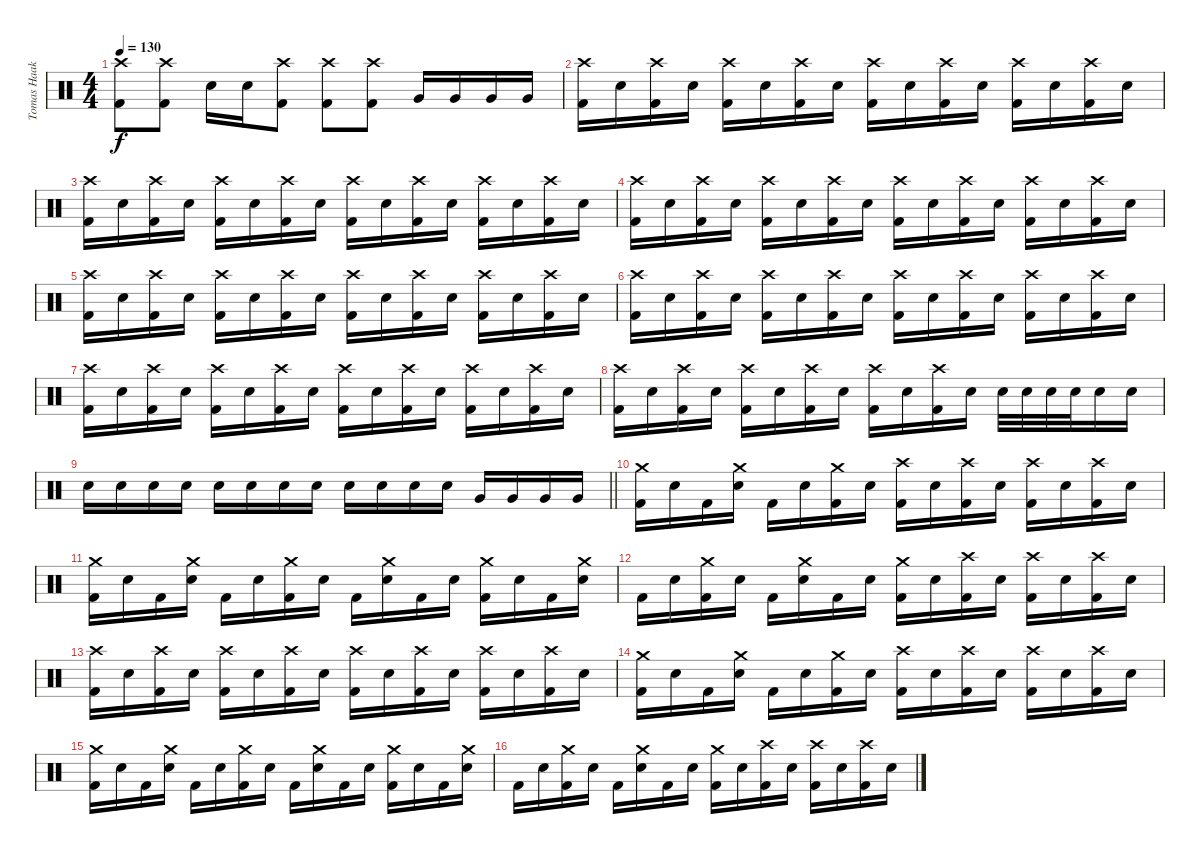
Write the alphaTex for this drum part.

\track ("Tomas Haake" "Tomas Haak") {instrument percussion}
\staff {score}
\articulation defaults
\ts (4 4)
\tempo 130
\clef neutral
\ks c
("Crash high (hit)" "Kick (hit) 2").8{dy f} ("Crash high (hit)" "Kick (hit) 2").8 "Electric Snare (hit)".16 "Electric Snare (hit)".16 ("Crash high (hit)" "Kick (hit) 2").8 ("Crash high (hit)" "Kick (hit) 2").8 ("Crash high (hit)" "Kick (hit) 2").8 "Very Low Tom (hit)".16 "Very Low Tom (hit)".16 "Very Low Tom (hit)".16 "Very Low Tom (hit)".16 |
("Crash high (hit)" "Kick (hit) 2").16 "Electric Snare (hit)".16 ("Crash high (hit)" "Kick (hit) 2").16 "Electric Snare (hit)".16 ("Crash high (hit)" "Kick (hit) 2").16 "Electric Snare (hit)".16 ("Crash high (hit)" "Kick (hit) 2").16 "Electric Snare (hit)".16 ("Crash high (hit)" "Kick (hit) 2").16 "Electric Snare (hit)".16 ("Crash high (hit)" "Kick (hit) 2").16 "Electric Snare (hit)".16 ("Crash high (hit)" "Kick (hit) 2").16 "Electric Snare (hit)".16 ("Crash high (hit)" "Kick (hit) 2").16 "Electric Snare (hit)".16 |
("Crash high (hit)" "Kick (hit) 2").16 "Electric Snare (hit)".16 ("Crash high (hit)" "Kick (hit) 2").16 "Electric Snare (hit)".16 ("Crash high (hit)" "Kick (hit) 2").16 "Electric Snare (hit)".16 ("Crash high (hit)" "Kick (hit) 2").16 "Electric Snare (hit)".16 ("Crash high (hit)" "Kick (hit) 2").16 "Electric Snare (hit)".16 ("Crash high (hit)" "Kick (hit) 2").16 "Electric Snare (hit)".16 ("Crash high (hit)" "Kick (hit) 2").16 "Electric Snare (hit)".16 ("Crash high (hit)" "Kick (hit) 2").16 "Electric Snare (hit)".16 |
("Crash high (hit)" "Kick (hit) 2").16 "Electric Snare (hit)".16 ("Crash high (hit)" "Kick (hit) 2").16 "Electric Snare (hit)".16 ("Crash high (hit)" "Kick (hit) 2").16 "Electric Snare (hit)".16 ("Crash high (hit)" "Kick (hit) 2").16 "Electric Snare (hit)".16 ("Crash high (hit)" "Kick (hit) 2").16 "Electric Snare (hit)".16 ("Crash high (hit)" "Kick (hit) 2").16 "Electric Snare (hit)".16 ("Crash high (hit)" "Kick (hit) 2").16 "Electric Snare (hit)".16 ("Crash high (hit)" "Kick (hit) 2").16 "Electric Snare (hit)".16 |
("Crash high (hit)" "Kick (hit) 2").16 "Electric Snare (hit)".16 ("Crash high (hit)" "Kick (hit) 2").16 "Electric Snare (hit)".16 ("Crash high (hit)" "Kick (hit) 2").16 "Electric Snare (hit)".16 ("Crash high (hit)" "Kick (hit) 2").16 "Electric Snare (hit)".16 ("Crash high (hit)" "Kick (hit) 2").16 "Electric Snare (hit)".16 ("Crash high (hit)" "Kick (hit) 2").16 "Electric Snare (hit)".16 ("Crash high (hit)" "Kick (hit) 2").16 "Electric Snare (hit)".16 ("Crash high (hit)" "Kick (hit) 2").16 "Electric Snare (hit)".16 |
("Crash high (hit)" "Kick (hit) 2").16 "Electric Snare (hit)".16 ("Crash high (hit)" "Kick (hit) 2").16 "Electric Snare (hit)".16 ("Crash high (hit)" "Kick (hit) 2").16 "Electric Snare (hit)".16 ("Crash high (hit)" "Kick (hit) 2").16 "Electric Snare (hit)".16 ("Crash high (hit)" "Kick (hit) 2").16 "Electric Snare (hit)".16 ("Crash high (hit)" "Kick (hit) 2").16 "Electric Snare (hit)".16 ("Crash high (hit)" "Kick (hit) 2").16 "Electric Snare (hit)".16 ("Crash high (hit)" "Kick (hit) 2").16 "Electric Snare (hit)".16 |
("Crash high (hit)" "Kick (hit) 2").16 "Electric Snare (hit)".16 ("Crash high (hit)" "Kick (hit) 2").16 "Electric Snare (hit)".16 ("Crash high (hit)" "Kick (hit) 2").16 "Electric Snare (hit)".16 ("Crash high (hit)" "Kick (hit) 2").16 "Electric Snare (hit)".16 ("Crash high (hit)" "Kick (hit) 2").16 "Electric Snare (hit)".16 ("Crash high (hit)" "Kick (hit) 2").16 "Electric Snare (hit)".16 ("Crash high (hit)" "Kick (hit) 2").16 "Electric Snare (hit)".16 ("Crash high (hit)" "Kick (hit) 2").16 "Electric Snare (hit)".16 |
("Crash high (hit)" "Kick (hit) 2").16 "Electric Snare (hit)".16 ("Crash high (hit)" "Kick (hit) 2").16 "Electric Snare (hit)".16 ("Crash high (hit)" "Kick (hit) 2").16 "Electric Snare (hit)".16 ("Crash high (hit)" "Kick (hit) 2").16 "Electric Snare (hit)".16 ("Crash high (hit)" "Kick (hit) 2").16 "Electric Snare (hit)".16 ("Crash high (hit)" "Kick (hit) 2").16 "Electric Snare (hit)".16 "Electric Snare (hit)".32 "Electric Snare (hit)".32 "Electric Snare (hit)".32 "Electric Snare (hit)".32 "Electric Snare (hit)".16 "Electric Snare (hit)".16 |
\barLineRight lightlight "Electric Snare (hit)".16 "Electric Snare (hit)".16 "Electric Snare (hit)".16 "Electric Snare (hit)".16 "Electric Snare (hit)".16 "Electric Snare (hit)".16 "Electric Snare (hit)".16 "Electric Snare (hit)".16 "Electric Snare (hit)".16 "Electric Snare (hit)".16 "Electric Snare (hit)".16 "Electric Snare (hit)".16 "Very Low Tom (hit)".16 "Very Low Tom (hit)".16 "Very Low Tom (hit)".16 "Very Low Tom (hit)".16
|
("Crash medium (hit)" "Kick (hit) 2").16 "Electric Snare (hit)".16 "Kick (hit) 2".16 ("Crash medium (hit)" "Electric Snare (hit)").16 "Kick (hit) 2".16 "Electric Snare (hit)".16 ("Crash medium (hit)" "Kick (hit) 2").16 "Electric Snare (hit)".16 ("Crash high (hit)" "Kick (hit) 2").16 "Electric Snare (hit)".16 ("Crash high (hit)" "Kick (hit) 2").16 "Electric Snare (hit)".16 ("Crash high (hit)" "Kick (hit) 2").16 "Electric Snare (hit)".16 ("Crash high (hit)" "Kick (hit) 2").16 "Electric Snare (hit)".16 |
("Crash medium (hit)" "Kick (hit) 2").16 "Electric Snare (hit)".16 "Kick (hit) 2".16 ("Crash medium (hit)" "Electric Snare (hit)").16 "Kick (hit) 2".16 "Electric Snare (hit)".16 ("Crash medium (hit)" "Kick (hit) 2").16 "Electric Snare (hit)".16 "Kick (hit) 2".16 ("Crash medium (hit)" "Electric Snare (hit)").16 "Kick (hit) 2".16 "Electric Snare (hit)".16 ("Crash medium (hit)" "Kick (hit) 2").16 "Electric Snare (hit)".16 "Kick (hit) 2".16 ("Crash medium (hit)" "Electric Snare (hit)").16 |
"Kick (hit) 2".16 "Electric Snare (hit)".16 ("Crash medium (hit)" "Kick (hit) 2").16 "Electric Snare (hit)".16 "Kick (hit) 2".16 ("Crash medium (hit)" "Electric Snare (hit)").16 "Kick (hit) 2".16 "Electric Snare (hit)".16 ("Crash medium (hit)" "Kick (hit) 2").16 "Electric Snare (hit)".16 ("Crash high (hit)" "Kick (hit) 2").16 "Electric Snare (hit)".16 ("Crash high (hit)" "Kick (hit) 2").16 "Electric Snare (hit)".16 ("Crash high (hit)" "Kick (hit) 2").16 "Electric Snare (hit)".16 |
("Crash high (hit)" "Kick (hit) 2").16 "Electric Snare (hit)".16 ("Crash high (hit)" "Kick (hit) 2").16 "Electric Snare (hit)".16 ("Crash high (hit)" "Kick (hit) 2").16 "Electric Snare (hit)".16 ("Crash high (hit)" "Kick (hit) 2").16 "Electric Snare (hit)".16 ("Crash high (hit)" "Kick (hit) 2").16 "Electric Snare (hit)".16 ("Crash high (hit)" "Kick (hit) 2").16 "Electric Snare (hit)".16 ("Crash high (hit)" "Kick (hit) 2").16 "Electric Snare (hit)".16 ("Crash high (hit)" "Kick (hit) 2").16 "Electric Snare (hit)".16 |
("Crash medium (hit)" "Kick (hit) 2").16 "Electric Snare (hit)".16 "Kick (hit) 2".16 ("Crash medium (hit)" "Electric Snare (hit)").16 "Kick (hit) 2".16 "Electric Snare (hit)".16 ("Crash medium (hit)" "Kick (hit) 2").16 "Electric Snare (hit)".16 ("Crash high (hit)" "Kick (hit) 2").16 "Electric Snare (hit)".16 ("Crash high (hit)" "Kick (hit) 2").16 "Electric Snare (hit)".16 ("Crash high (hit)" "Kick (hit) 2").16 "Electric Snare (hit)".16 ("Crash high (hit)" "Kick (hit) 2").16 "Electric Snare (hit)".16 |
("Crash medium (hit)" "Kick (hit) 2").16 "Electric Snare (hit)".16 "Kick (hit) 2".16 ("Crash medium (hit)" "Electric Snare (hit)").16 "Kick (hit) 2".16 "Electric Snare (hit)".16 ("Crash medium (hit)" "Kick (hit) 2").16 "Electric Snare (hit)".16 "Kick (hit) 2".16 ("Crash medium (hit)" "Electric Snare (hit)").16 "Kick (hit) 2".16 "Electric Snare (hit)".16 ("Crash medium (hit)" "Kick (hit) 2").16 "Electric Snare (hit)".16 "Kick (hit) 2".16 ("Crash medium (hit)" "Electric Snare (hit)").16 |
"Kick (hit) 2".16 "Electric Snare (hit)".16 ("Crash medium (hit)" "Kick (hit) 2").16 "Electric Snare (hit)".16 "Kick (hit) 2".16 ("Crash medium (hit)" "Electric Snare (hit)").16 "Kick (hit) 2".16 "Electric Snare (hit)".16 ("Crash medium (hit)" "Kick (hit) 2").16 "Electric Snare (hit)".16 ("Crash high (hit)" "Kick (hit) 2").16 "Electric Snare (hit)".16 ("Crash high (hit)" "Kick (hit) 2").16 "Electric Snare (hit)".16 ("Crash high (hit)" "Kick (hit) 2").16 "Electric Snare (hit)".16
